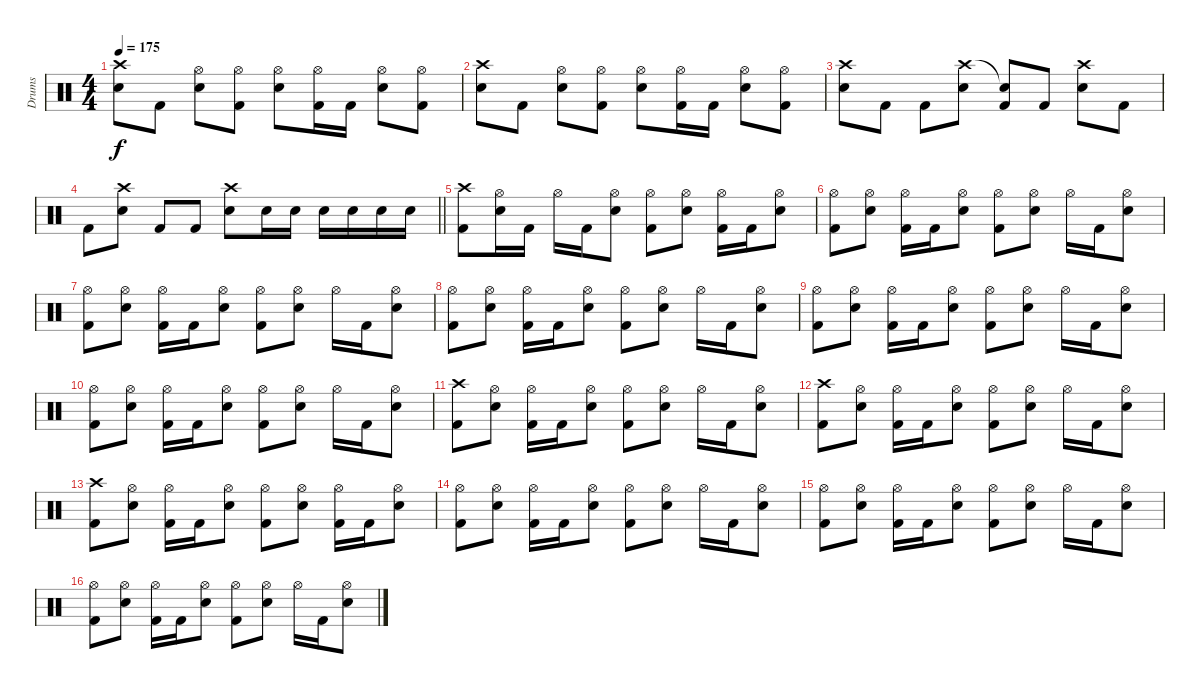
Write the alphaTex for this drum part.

\track ("Drums" "Drums") {instrument percussion}
\staff {score}
\articulation defaults
\ts (4 4)
\tempo 175
\clef neutral
\ks c
("Crash high (hit)" "Snare (hit) 2").8{dy f} "Kick (hit) 2".8 ("Hi-Hat (open)" "Snare (hit) 2").8 ("Hi-Hat (open)" "Kick (hit) 2").8 ("Hi-Hat (open)" "Snare (hit) 2").8 ("Hi-Hat (open)" "Kick (hit) 2").16 "Kick (hit) 2".16 ("Hi-Hat (open)" "Snare (hit) 2").8 ("Hi-Hat (open)" "Kick (hit) 2").8 |
("Crash high (hit)" "Snare (hit) 2").8 "Kick (hit) 2".8 ("Hi-Hat (open)" "Snare (hit) 2").8 ("Hi-Hat (open)" "Kick (hit) 2").8 ("Hi-Hat (open)" "Snare (hit) 2").8 ("Hi-Hat (open)" "Kick (hit) 2").16 "Kick (hit) 2".16 ("Hi-Hat (open)" "Snare (hit) 2").8 ("Hi-Hat (open)" "Kick (hit) 2").8 |
("Crash high (hit)" "Snare (hit) 2").8 "Kick (hit) 2".8 "Kick (hit) 2".8 ("Crash high (hit)" "Snare (hit) 2").8 ("Snare (hit)"{t} "Kick (hit) 2").8 "Kick (hit) 2".8 ("Crash high (hit)" "Snare (hit) 2").8 "Kick (hit) 2".8 |
\barLineRight lightlight "Kick (hit) 2".8
("Crash high (hit)" "Snare (hit) 2").8 "Kick (hit) 2".8 "Kick (hit) 2".8 ("Crash high (hit)" "Snare (hit) 2").8 "Snare (hit) 2".16 "Snare (hit) 2".16 "Snare (hit) 2".16 "Snare (hit) 2".16 "Snare (hit) 2".16 "Snare (hit) 2".16 |
("Crash high (hit)" "Kick (hit) 2").8 ("Hi-Hat (open)" "Snare (hit) 2").16 "Kick (hit) 2".16 "Hi-Hat (open)".16 "Kick (hit) 2".16 ("Hi-Hat (open)" "Snare (hit) 2").8 ("Hi-Hat (open)" "Kick (hit) 2").8 ("Hi-Hat (open)" "Snare (hit) 2").8 ("Hi-Hat (open)" "Kick (hit) 2").16 "Kick (hit) 2".16 ("Hi-Hat (open)" "Snare (hit) 2").8 |
("Hi-Hat (open)" "Kick (hit) 2").8 ("Hi-Hat (open)" "Snare (hit) 2").8 ("Hi-Hat (open)" "Kick (hit) 2").16 "Kick (hit) 2".16 ("Hi-Hat (open)" "Snare (hit) 2").8 ("Hi-Hat (open)" "Kick (hit) 2").8 ("Hi-Hat (open)" "Snare (hit) 2").8 "Hi-Hat (open)".16 "Kick (hit) 2".16 ("Hi-Hat (open)" "Snare (hit) 2").8 |
("Hi-Hat (open)" "Kick (hit) 2").8 ("Hi-Hat (open)" "Snare (hit) 2").8 ("Hi-Hat (open)" "Kick (hit) 2").16 "Kick (hit) 2".16 ("Hi-Hat (open)" "Snare (hit) 2").8 ("Hi-Hat (open)" "Kick (hit) 2").8 ("Hi-Hat (open)" "Snare (hit) 2").8 "Hi-Hat (open)".16 "Kick (hit) 2".16 ("Hi-Hat (open)" "Snare (hit) 2").8 |
("Hi-Hat (open)" "Kick (hit) 2").8 ("Hi-Hat (open)" "Snare (hit) 2").8 ("Hi-Hat (open)" "Kick (hit) 2").16 "Kick (hit) 2".16 ("Hi-Hat (open)" "Snare (hit) 2").8 ("Hi-Hat (open)" "Kick (hit) 2").8 ("Hi-Hat (open)" "Snare (hit) 2").8 "Hi-Hat (open)".16 "Kick (hit) 2".16 ("Hi-Hat (open)" "Snare (hit) 2").8 |
("Hi-Hat (open)" "Kick (hit) 2").8 ("Hi-Hat (open)" "Snare (hit) 2").8 ("Hi-Hat (open)" "Kick (hit) 2").16 "Kick (hit) 2".16 ("Hi-Hat (open)" "Snare (hit) 2").8 ("Hi-Hat (open)" "Kick (hit) 2").8 ("Hi-Hat (open)" "Snare (hit) 2").8 "Hi-Hat (open)".16 "Kick (hit) 2".16 ("Hi-Hat (open)" "Snare (hit) 2").8 |
("Hi-Hat (open)" "Kick (hit) 2").8 ("Hi-Hat (open)" "Snare (hit) 2").8 ("Hi-Hat (open)" "Kick (hit) 2").16 "Kick (hit) 2".16 ("Hi-Hat (open)" "Snare (hit) 2").8 ("Hi-Hat (open)" "Kick (hit) 2").8 ("Hi-Hat (open)" "Snare (hit) 2").8 "Hi-Hat (open)".16 "Kick (hit) 2".16 ("Hi-Hat (open)" "Snare (hit) 2").8 |
("Crash high (hit)" "Kick (hit) 2").8 ("Hi-Hat (open)" "Snare (hit) 2").8 ("Hi-Hat (open)" "Kick (hit) 2").16 "Kick (hit) 2".16 ("Hi-Hat (open)" "Snare (hit) 2").8 ("Hi-Hat (open)" "Kick (hit) 2").8 ("Hi-Hat (open)" "Snare (hit) 2").8 "Hi-Hat (open)".16 "Kick (hit) 2".16 ("Hi-Hat (open)" "Snare (hit) 2").8 |
("Crash high (hit)" "Kick (hit) 2").8 ("Hi-Hat (open)" "Snare (hit) 2").8 ("Hi-Hat (open)" "Kick (hit) 2").16 "Kick (hit) 2".16 ("Hi-Hat (open)" "Snare (hit) 2").8 ("Hi-Hat (open)" "Kick (hit) 2").8 ("Hi-Hat (open)" "Snare (hit) 2").8 "Hi-Hat (open)".16 "Kick (hit) 2".16 ("Hi-Hat (open)" "Snare (hit) 2").8 |
("Crash high (hit)" "Kick (hit) 2").8 ("Hi-Hat (open)" "Snare (hit) 2").8 ("Hi-Hat (open)" "Kick (hit) 2").16 "Kick (hit) 2".16 ("Hi-Hat (open)" "Snare (hit) 2").8 ("Hi-Hat (open)" "Kick (hit) 2").8 ("Hi-Hat (open)" "Snare (hit) 2").8 ("Hi-Hat (open)" "Kick (hit) 2").16 "Kick (hit) 2".16 ("Hi-Hat (open)" "Snare (hit) 2").8 |
("Hi-Hat (open)" "Kick (hit) 2").8 ("Hi-Hat (open)" "Snare (hit) 2").8 ("Hi-Hat (open)" "Kick (hit) 2").16 "Kick (hit) 2".16 ("Hi-Hat (open)" "Snare (hit) 2").8 ("Hi-Hat (open)" "Kick (hit) 2").8 ("Hi-Hat (open)" "Snare (hit) 2").8 "Hi-Hat (open)".16 "Kick (hit) 2".16 ("Hi-Hat (open)" "Snare (hit) 2").8 |
("Hi-Hat (open)" "Kick (hit) 2").8 ("Hi-Hat (open)" "Snare (hit) 2").8 ("Hi-Hat (open)" "Kick (hit) 2").16 "Kick (hit) 2".16 ("Hi-Hat (open)" "Snare (hit) 2").8 ("Hi-Hat (open)" "Kick (hit) 2").8 ("Hi-Hat (open)" "Snare (hit) 2").8 "Hi-Hat (open)".16 "Kick (hit) 2".16 ("Hi-Hat (open)" "Snare (hit) 2").8 |
("Hi-Hat (open)" "Kick (hit) 2").8 ("Hi-Hat (open)" "Snare (hit) 2").8 ("Hi-Hat (open)" "Kick (hit) 2").16 "Kick (hit) 2".16 ("Hi-Hat (open)" "Snare (hit) 2").8 ("Hi-Hat (open)" "Kick (hit) 2").8 ("Hi-Hat (open)" "Snare (hit) 2").8 "Hi-Hat (open)".16 "Kick (hit) 2".16 ("Hi-Hat (open)" "Snare (hit) 2").8
